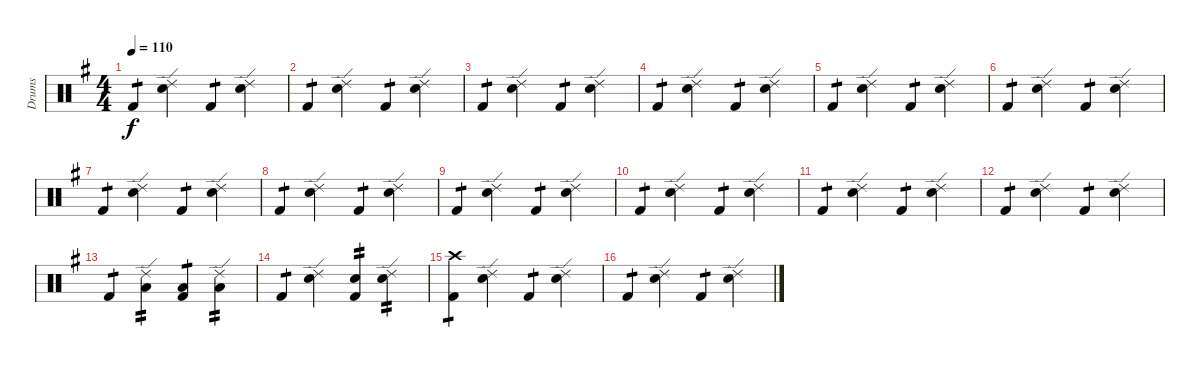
\track ("Drums" "Drums") {instrument percussion}
\staff {score}
\articulation defaults
\ts (4 4)
\tempo 110
\clef neutral
\ks g "Kick (hit) 2".4{tp 1 dy f}
("Ride (edge) 2" "Snare (hit) 2").4 "Kick (hit) 2".4{tp 1} ("Ride (edge) 2" "Snare (hit) 2").4 |
"Kick (hit) 2".4{tp 1} ("Ride (edge) 2" "Snare (hit) 2").4 "Kick (hit) 2".4{tp 1} ("Ride (edge) 2" "Snare (hit) 2").4 |
"Kick (hit) 2".4{tp 1} ("Ride (edge) 2" "Snare (hit) 2").4 "Kick (hit) 2".4{tp 1} ("Ride (edge) 2" "Snare (hit) 2").4 |
"Kick (hit) 2".4{tp 1} ("Ride (edge) 2" "Snare (hit) 2").4 "Kick (hit) 2".4{tp 1} ("Ride (edge) 2" "Snare (hit) 2").4 |
"Kick (hit) 2".4{tp 1} ("Ride (edge) 2" "Snare (hit) 2").4 "Kick (hit) 2".4{tp 1} ("Ride (edge) 2" "Snare (hit) 2").4 |
"Kick (hit) 2".4{tp 1} ("Ride (edge) 2" "Snare (hit) 2").4 "Kick (hit) 2".4{tp 1} ("Ride (edge) 2" "Snare (hit) 2").4 |
"Kick (hit) 2".4{tp 1} ("Ride (edge) 2" "Snare (hit) 2").4 "Kick (hit) 2".4{tp 1} ("Ride (edge) 2" "Snare (hit) 2").4 |
"Kick (hit) 2".4{tp 1} ("Ride (edge) 2" "Snare (hit) 2").4 "Kick (hit) 2".4{tp 1} ("Ride (edge) 2" "Snare (hit) 2").4 |
"Kick (hit) 2".4{tp 1} ("Ride (edge) 2" "Snare (hit) 2").4 "Kick (hit) 2".4{tp 1} ("Ride (edge) 2" "Snare (hit) 2").4 |
"Kick (hit) 2".4{tp 1} ("Ride (edge) 2" "Snare (hit) 2").4 "Kick (hit) 2".4{tp 1} ("Ride (edge) 2" "Snare (hit) 2").4 |
"Kick (hit) 2".4{tp 1} ("Ride (edge) 2" "Snare (hit) 2").4 "Kick (hit) 2".4{tp 1} ("Ride (edge) 2" "Snare (hit) 2").4 |
"Kick (hit) 2".4{tp 1} ("Ride (edge) 2" "Snare (hit) 2").4 "Kick (hit) 2".4{tp 1} ("Ride (edge) 2" "Snare (hit) 2").4 |
"Kick (hit) 2".4{tp 1} ("Ride (edge) 2" "Low Floor Tom (hit)").4{tp 2} ("Kick (hit) 2" "Low Tom (hit)").4{tp 1} ("Ride (edge) 2" "Low Floor Tom (hit)").4{tp 2} |
"Kick (hit) 2".4{tp 1} ("Ride (edge) 2" "Snare (hit) 2").4 ("Kick (hit) 2" "Snare (hit) 2").4{tp 2} ("Ride (edge) 2" "Snare (hit) 2").4{tp 2} |
("Kick (hit) 2" "Crash high (hit)").4{tp 1} ("Ride (edge) 2" "Snare (hit) 2").4 "Kick (hit) 2".4{tp 1} ("Ride (edge) 2" "Snare (hit) 2").4 |
"Kick (hit) 2".4{tp 1} ("Ride (edge) 2" "Snare (hit) 2").4 "Kick (hit) 2".4{tp 1} ("Ride (edge) 2" "Snare (hit) 2").4
